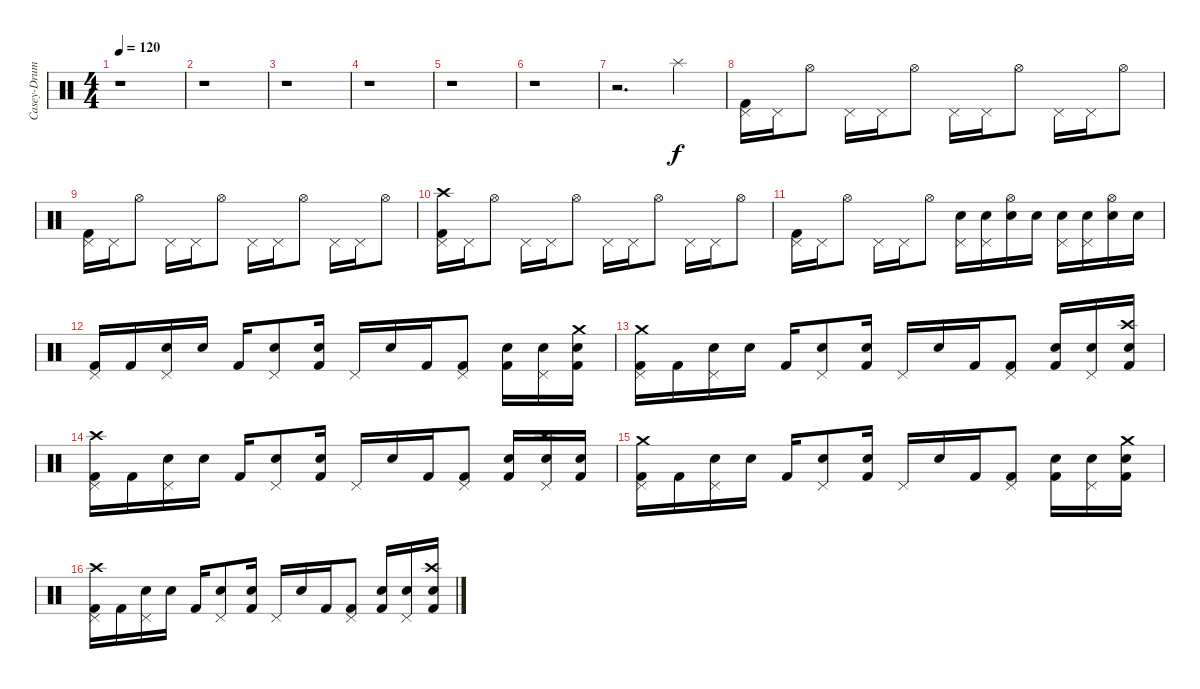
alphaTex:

\track ("Casey-Drums" "Casey-Drum") {instrument percussion}
\staff {score}
\articulation defaults
\ts (4 4)
\tempo 120
\clef neutral
\ks c
r.1{dy f} |
r.1 |
r.1 |
r.1 |
r.1 |
r.1 |
r.2{d} "Splash (hit)".4 |
("Pedal Hi-Hat (hit)" "Kick (hit) 2").16 "Pedal Hi-Hat (hit)".16 "Hi-Hat (open)".8 "Pedal Hi-Hat (hit)".16 "Pedal Hi-Hat (hit)".16 "Hi-Hat (open)".8 "Pedal Hi-Hat (hit)".16 "Pedal Hi-Hat (hit)".16 "Hi-Hat (open)".8 "Pedal Hi-Hat (hit)".16 "Pedal Hi-Hat (hit)".16 "Hi-Hat (open)".8 |
("Pedal Hi-Hat (hit)" "Kick (hit) 2").16 "Pedal Hi-Hat (hit)".16 "Hi-Hat (open)".8 "Pedal Hi-Hat (hit)".16 "Pedal Hi-Hat (hit)".16 "Hi-Hat (open)".8 "Pedal Hi-Hat (hit)".16 "Pedal Hi-Hat (hit)".16 "Hi-Hat (open)".8 "Pedal Hi-Hat (hit)".16 "Pedal Hi-Hat (hit)".16 "Hi-Hat (open)".8 |
("Crash high (hit)" "Pedal Hi-Hat (hit)" "Kick (hit) 2").16 "Pedal Hi-Hat (hit)".16 "Hi-Hat (open)".8 "Pedal Hi-Hat (hit)".16 "Pedal Hi-Hat (hit)".16 "Hi-Hat (open)".8 "Pedal Hi-Hat (hit)".16 "Pedal Hi-Hat (hit)".16 "Hi-Hat (open)".8 "Pedal Hi-Hat (hit)".16 "Pedal Hi-Hat (hit)".16 "Hi-Hat (open)".8 |
("Pedal Hi-Hat (hit)" "Kick (hit) 2").16 "Pedal Hi-Hat (hit)".16 "Hi-Hat (open)".8 "Pedal Hi-Hat (hit)".16 "Pedal Hi-Hat (hit)".16 "Hi-Hat (open)".8 ("Pedal Hi-Hat (hit)" "Electric Snare (hit)").16 ("Pedal Hi-Hat (hit)" "Electric Snare (hit)").16 ("Hi-Hat (open)" "Electric Snare (hit)").16 "Electric Snare (hit)".16 ("Pedal Hi-Hat (hit)" "Electric Snare (hit)").16 ("Pedal Hi-Hat (hit)" "Electric Snare (hit)").16 ("Hi-Hat (open)" "Electric Snare (hit)").16 "Electric Snare (hit)".16 |
("Pedal Hi-Hat (hit)" "Kick (hit) 2").16 "Kick (hit) 2".16 ("Pedal Hi-Hat (hit)" "Electric Snare (hit)").16 "Snare (hit)".16 "Kick (hit) 2".16 ("Pedal Hi-Hat (hit)" "Electric Snare (hit)").8 ("Electric Snare (hit)" "Kick (hit) 2").16 "Pedal Hi-Hat (hit)".16 "Electric Snare (hit)".16 "Kick (hit) 2".16 ("Pedal Hi-Hat (hit)" "Kick (hit) 2").8 ("Electric Snare (hit)" "Kick (hit) 2").16 ("Pedal Hi-Hat (hit)" "Electric Snare (hit)").16 ("Crash medium (hit)" "Electric Snare (hit)" "Kick (hit) 2").16 |
("Crash medium (hit)" "Pedal Hi-Hat (hit)" "Kick (hit) 2").16 "Kick (hit) 2".16 ("Pedal Hi-Hat (hit)" "Electric Snare (hit)").16 "Snare (hit)".16 "Kick (hit) 2".16 ("Pedal Hi-Hat (hit)" "Electric Snare (hit)").8 ("Electric Snare (hit)" "Kick (hit) 2").16 "Pedal Hi-Hat (hit)".16 "Electric Snare (hit)".16 "Kick (hit) 2".16 ("Pedal Hi-Hat (hit)" "Kick (hit) 2").8 ("Electric Snare (hit)" "Kick (hit) 2").16 ("Pedal Hi-Hat (hit)" "Electric Snare (hit)").16 ("Crash high (hit)" "Electric Snare (hit)" "Kick (hit) 2").16 |
("Crash high (hit)" "Pedal Hi-Hat (hit)" "Kick (hit) 2").16 "Kick (hit) 2".16 ("Pedal Hi-Hat (hit)" "Electric Snare (hit)").16 "Snare (hit)".16 "Kick (hit) 2".16 ("Pedal Hi-Hat (hit)" "Electric Snare (hit)").8 ("Electric Snare (hit)" "Kick (hit) 2").16 "Pedal Hi-Hat (hit)".16 "Electric Snare (hit)".16 "Kick (hit) 2".16 ("Pedal Hi-Hat (hit)" "Kick (hit) 2").8 ("Electric Snare (hit)" "Kick (hit) 2").16 ("Crash high (hit)" "Pedal Hi-Hat (hit)" "Electric Snare (hit)").16 ("Electric Snare (hit)" "Kick (hit) 2").16 |
("Crash medium (hit)" "Pedal Hi-Hat (hit)" "Kick (hit) 2").16 "Kick (hit) 2".16 ("Pedal Hi-Hat (hit)" "Electric Snare (hit)").16 "Snare (hit)".16 "Kick (hit) 2".16 ("Pedal Hi-Hat (hit)" "Electric Snare (hit)").8 ("Electric Snare (hit)" "Kick (hit) 2").16 "Pedal Hi-Hat (hit)".16 "Electric Snare (hit)".16 "Kick (hit) 2".16 ("Pedal Hi-Hat (hit)" "Kick (hit) 2").8 ("Electric Snare (hit)" "Kick (hit) 2").16 ("Pedal Hi-Hat (hit)" "Electric Snare (hit)").16 ("Crash medium (hit)" "Electric Snare (hit)" "Kick (hit) 2").16 |
("Crash high (hit)" "Pedal Hi-Hat (hit)" "Kick (hit) 2").16 "Kick (hit) 2".16 ("Pedal Hi-Hat (hit)" "Electric Snare (hit)").16 "Snare (hit)".16 "Kick (hit) 2".16 ("Pedal Hi-Hat (hit)" "Electric Snare (hit)").8 ("Electric Snare (hit)" "Kick (hit) 2").16 "Pedal Hi-Hat (hit)".16 "Electric Snare (hit)".16 "Kick (hit) 2".16 ("Pedal Hi-Hat (hit)" "Kick (hit) 2").8 ("Electric Snare (hit)" "Kick (hit) 2").16 ("Pedal Hi-Hat (hit)" "Electric Snare (hit)").16 ("Crash high (hit)" "Electric Snare (hit)" "Kick (hit) 2").16
